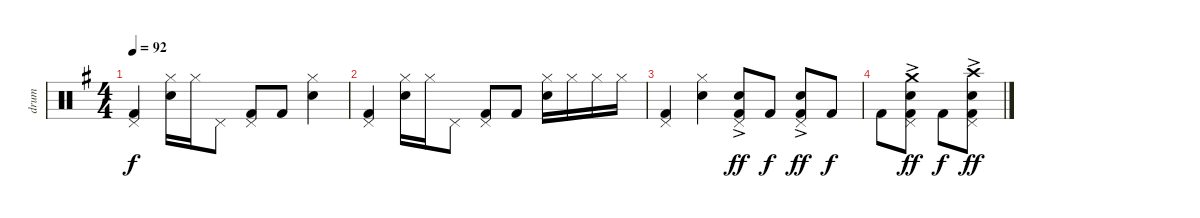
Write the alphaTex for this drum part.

\track ("drum" "drum") {instrument percussion}
\staff {score}
\articulation defaults
\ts (4 4)
\tempo 92
\clef neutral
\ks g
("Kick (hit) 2" "Pedal Hi-Hat (hit)").4{dy f} ("Snare (hit) 2" "Hi-Hat (closed)").16 "Hi-Hat (closed)".16 "Pedal Hi-Hat (hit)".8 ("Kick (hit) 2" "Pedal Hi-Hat (hit)").8 "Kick (hit) 2".8 ("Snare (hit) 2" "Hi-Hat (closed)").4 |
("Kick (hit) 2" "Pedal Hi-Hat (hit)").4 ("Snare (hit) 2" "Hi-Hat (closed)").16 "Hi-Hat (closed)".16 "Pedal Hi-Hat (hit)".8 ("Kick (hit) 2" "Pedal Hi-Hat (hit)").8 "Kick (hit) 2".8 ("Snare (hit) 2" "Hi-Hat (closed)").16 "Hi-Hat (closed)".16 "Hi-Hat (closed)".16 "Hi-Hat (closed)".16 |
("Kick (hit) 2" "Pedal Hi-Hat (hit)").4 ("Snare (hit) 2" "Hi-Hat (closed)").4 ("Snare (hit) 2"{ac} "Kick (hit) 2"{ac} "Pedal Hi-Hat (hit)"{ac}).8{dy ff} "Kick (hit) 2".8{dy f} ("Snare (hit) 2"{ac} "Kick (hit) 2"{ac} "Pedal Hi-Hat (hit)"{ac}).8{dy ff} "Kick (hit) 2".8{dy f} |
"Kick (hit) 2".8 ("Snare (hit) 2"{ac} "Kick (hit) 2"{ac} "Pedal Hi-Hat (hit)"{ac} "Crash medium (hit)").8{dy ff} "Kick (hit) 2".8{dy f} ("Snare (hit) 2"{ac} "Kick (hit) 2"{ac} "Pedal Hi-Hat (hit)"{ac} "Crash high (hit)").8{dy ff}
